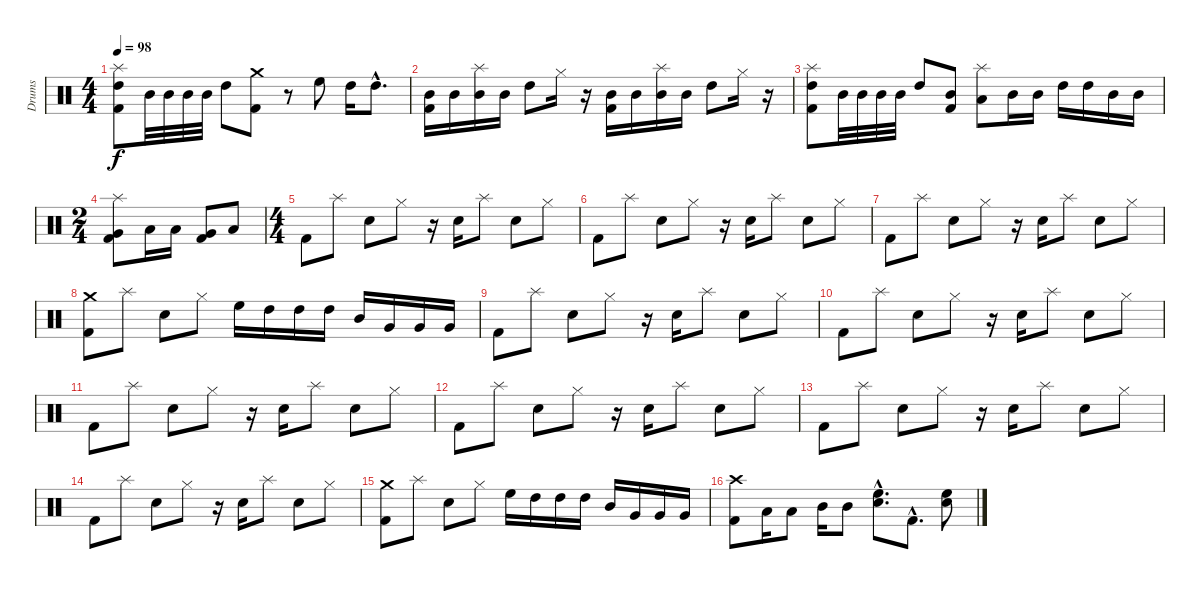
\track ("Drums" "Drums") {instrument percussion}
\staff {score}
\articulation defaults
\ts (4 4)
\tempo 98
\clef neutral
\ks c
("Splash (hit)" "High Tom (hit)" "Kick (hit) 2").8{dy f} "Mid Tom (hit)".32 "Mid Tom (hit)".32 "Mid Tom (hit)".32 "Mid Tom (hit)".32 "High Tom (hit)".8 ("Crash medium (hit)" "Kick (hit) 2").8 r.8 "High Floor Tom (hit)".8 "High Tom (hit)".16 "High Tom (hit)"{hac}.8{d} |
("Mid Tom (hit)" "Kick (hit) 2").16 "Mid Tom (hit)".16 ("Splash (hit)" "Mid Tom (hit)").16 "Mid Tom (hit)".16 "High Tom (hit)".8 "Hi-Hat (closed)".16 r.16 ("Mid Tom (hit)" "Kick (hit) 2").16 "Mid Tom (hit)".16 ("Splash (hit)" "Mid Tom (hit)").16 "Mid Tom (hit)".16 "High Tom (hit)".8 "Hi-Hat (closed)".16 r.16 |
("Splash (hit)" "High Tom (hit)" "Kick (hit) 2").8 "Mid Tom (hit)".32 "Mid Tom (hit)".32 "Mid Tom (hit)".32 "Mid Tom (hit)".32 "High Tom (hit)".8 ("Mid Tom (hit)" "Kick (hit) 2").8 ("Splash (hit)" "Low Tom (hit)").8 "Mid Tom (hit)".16 "Mid Tom (hit)".16 "High Tom (hit)".16 "High Tom (hit)".16 "Mid Tom (hit)".16 "Mid Tom (hit)".16 |
\ts (2 4)
("Splash (hit)" "Very Low Tom (hit)" "Kick (hit) 2").8 "Low Tom (hit)".16 "Low Tom (hit)".16 ("Very Low Tom (hit)" "Kick (hit) 2").8 "Low Tom (hit)".8 |
\ts (4 4)
"Kick (hit) 2".8 "Splash (hit)".8 "Snare (hit) 2".8 "Hi-Hat (closed)".8 r.16 "Snare (hit) 2".16 "Splash (hit)".8 "Snare (hit) 2".8 "Hi-Hat (closed)".8 |
"Kick (hit) 2".8 "Splash (hit)".8 "Snare (hit) 2".8 "Hi-Hat (closed)".8 r.16 "Snare (hit) 2".16 "Splash (hit)".8 "Snare (hit) 2".8 "Hi-Hat (closed)".8 |
"Kick (hit) 2".8 "Splash (hit)".8 "Snare (hit) 2".8 "Hi-Hat (closed)".8 r.16 "Snare (hit) 2".16 "Splash (hit)".8 "Snare (hit) 2".8 "Hi-Hat (closed)".8 |
("Crash medium (hit)" "Kick (hit) 2").8 "Splash (hit)".8 "Snare (hit) 2".8 "Hi-Hat (closed)".8 "High Floor Tom (hit)".16 "High Tom (hit)".16 "High Tom (hit)".16 "High Tom (hit)".16 "Mid Tom (hit)".16 "Very Low Tom (hit)".16 "Very Low Tom (hit)".16 "Very Low Tom (hit)".16 |
"Kick (hit) 2".8 "Splash (hit)".8 "Snare (hit) 2".8 "Hi-Hat (closed)".8 r.16 "Snare (hit) 2".16 "Splash (hit)".8 "Snare (hit) 2".8 "Hi-Hat (closed)".8 |
"Kick (hit) 2".8 "Splash (hit)".8 "Snare (hit) 2".8 "Hi-Hat (closed)".8 r.16 "Snare (hit) 2".16 "Splash (hit)".8 "Snare (hit) 2".8 "Hi-Hat (closed)".8 |
"Kick (hit) 2".8 "Splash (hit)".8 "Snare (hit) 2".8 "Hi-Hat (closed)".8 r.16 "Snare (hit) 2".16 "Splash (hit)".8 "Snare (hit) 2".8 "Hi-Hat (closed)".8 |
"Kick (hit) 2".8 "Splash (hit)".8 "Snare (hit) 2".8 "Hi-Hat (closed)".8 r.16 "Snare (hit) 2".16 "Splash (hit)".8 "Snare (hit) 2".8 "Hi-Hat (closed)".8 |
"Kick (hit) 2".8 "Splash (hit)".8 "Snare (hit) 2".8 "Hi-Hat (closed)".8 r.16 "Snare (hit) 2".16 "Splash (hit)".8 "Snare (hit) 2".8 "Hi-Hat (closed)".8 |
"Kick (hit) 2".8 "Splash (hit)".8 "Snare (hit) 2".8 "Hi-Hat (closed)".8 r.16 "Snare (hit) 2".16 "Splash (hit)".8 "Snare (hit) 2".8 "Hi-Hat (closed)".8 |
("Crash medium (hit)" "Kick (hit) 2").8 "Splash (hit)".8 "Snare (hit) 2".8 "Hi-Hat (closed)".8 "High Floor Tom (hit)".16 "High Tom (hit)".16 "High Tom (hit)".16 "High Tom (hit)".16 "Mid Tom (hit)".16 "Very Low Tom (hit)".16 "Very Low Tom (hit)".16 "Very Low Tom (hit)".16 |
("Crash high (hit)" "Kick (hit) 2").8 "Low Tom (hit)".16 "Low Tom (hit)".8 "Mid Tom (hit)".16 "Mid Tom (hit)".8 ("Electric Snare (hit)"{hac} "High Floor Tom (hit)"{hac}).8{d} "Kick (hit) 2"{hac}.8{d} ("Electric Snare (hit)" "High Floor Tom (hit)").8
